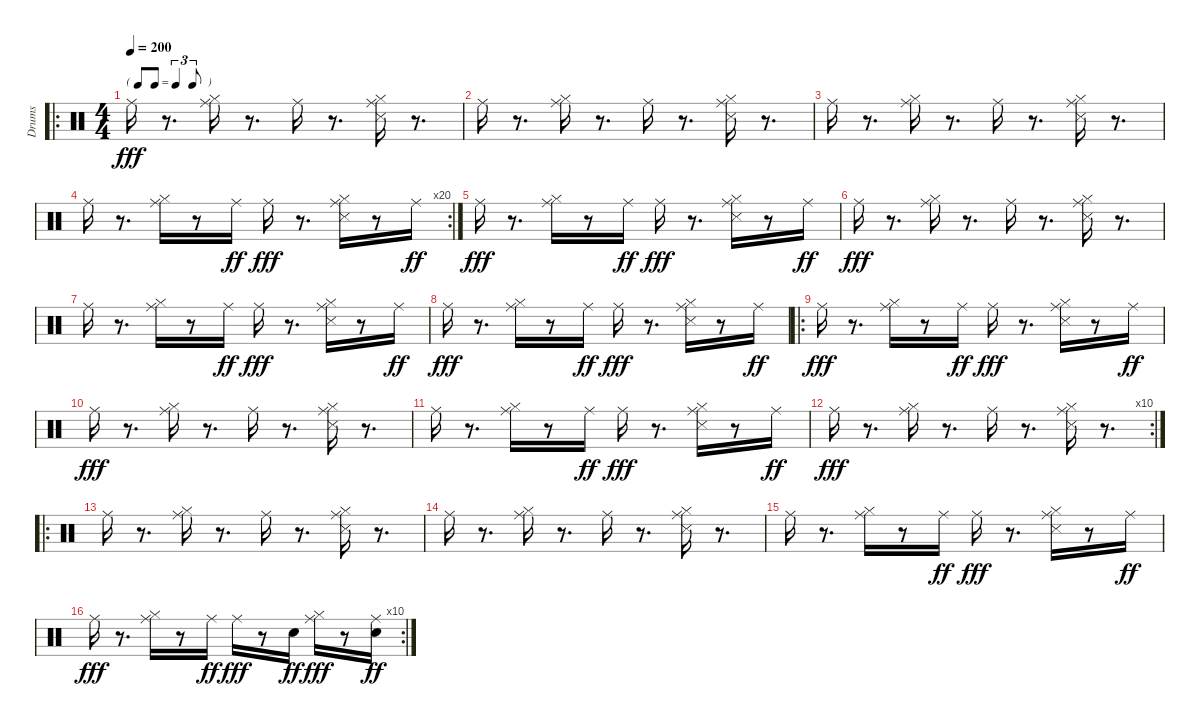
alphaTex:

\track ("Drums                                   " "Drums     ") {instrument percussion}
\staff {score}
\articulation defaults
\ro
\ts (4 4)
\tf triplet8th
\tempo 200
\clef neutral
\ks c "Ride (middle)".16{dy fff}
r.8{d} ("Hi-Hat (closed)" "Ride (middle)").16 r.8{d} "Ride (middle)".16 r.8{d} ("Hi-Hat (closed)" "Snare (side stick) 3" "Ride (middle)").16 r.8{d} |
"Ride (middle)".16 r.8{d} ("Hi-Hat (closed)" "Ride (middle)").16 r.8{d} "Ride (middle)".16 r.8{d} ("Hi-Hat (closed)" "Snare (side stick) 3" "Ride (middle)").16 r.8{d} |
"Ride (middle)".16 r.8{d} ("Hi-Hat (closed)" "Ride (middle)").16 r.8{d} "Ride (middle)".16 r.8{d} ("Hi-Hat (closed)" "Snare (side stick) 3" "Ride (middle)").16 r.8{d} |
\rc 20 "Ride (middle)".16
r.8{d} ("Hi-Hat (closed)" "Ride (middle)").16 r.8 "Ride (middle)".16{dy ff} "Ride (middle)".16{dy fff} r.8{d} ("Hi-Hat (closed)" "Snare (side stick) 3" "Ride (middle)").16 r.8 "Ride (middle)".16{dy ff} |
"Ride (middle)".16{dy fff} r.8{d} ("Hi-Hat (closed)" "Ride (middle)").16 r.8 "Ride (middle)".16{dy ff} "Ride (middle)".16{dy fff} r.8{d} ("Hi-Hat (closed)" "Snare (side stick) 3" "Ride (middle)").16 r.8 "Ride (middle)".16{dy ff} |
"Ride (middle)".16{dy fff} r.8{d} ("Hi-Hat (closed)" "Ride (middle)").16 r.8{d} "Ride (middle)".16 r.8{d} ("Hi-Hat (closed)" "Snare (side stick) 3" "Ride (middle)").16 r.8{d} |
"Ride (middle)".16 r.8{d} ("Hi-Hat (closed)" "Ride (middle)").16 r.8 "Ride (middle)".16{dy ff} "Ride (middle)".16{dy fff} r.8{d} ("Hi-Hat (closed)" "Snare (side stick) 3" "Ride (middle)").16 r.8 "Ride (middle)".16{dy ff} |
"Ride (middle)".16{dy fff} r.8{d} ("Hi-Hat (closed)" "Ride (middle)").16 r.8 "Ride (middle)".16{dy ff} "Ride (middle)".16{dy fff} r.8{d} ("Hi-Hat (closed)" "Snare (side stick) 3" "Ride (middle)").16 r.8 "Ride (middle)".16{dy ff} |
\ro "Ride (middle)".16{dy fff}
r.8{d} ("Hi-Hat (closed)" "Ride (middle)").16 r.8 "Ride (middle)".16{dy ff} "Ride (middle)".16{dy fff} r.8{d} ("Hi-Hat (closed)" "Snare (side stick) 3" "Ride (middle)").16 r.8 "Ride (middle)".16{dy ff} |
"Ride (middle)".16{dy fff} r.8{d} ("Hi-Hat (closed)" "Ride (middle)").16 r.8{d} "Ride (middle)".16 r.8{d} ("Hi-Hat (closed)" "Snare (side stick) 3" "Ride (middle)").16 r.8{d} |
"Ride (middle)".16 r.8{d} ("Hi-Hat (closed)" "Ride (middle)").16 r.8 "Ride (middle)".16{dy ff} "Ride (middle)".16{dy fff} r.8{d} ("Hi-Hat (closed)" "Snare (side stick) 3" "Ride (middle)").16 r.8 "Ride (middle)".16{dy ff} |
\rc 10 "Ride (middle)".16{dy fff}
r.8{d} ("Hi-Hat (closed)" "Ride (middle)").16 r.8{d} "Ride (middle)".16 r.8{d} ("Hi-Hat (closed)" "Snare (side stick) 3" "Ride (middle)").16 r.8{d} |
\ro "Ride (middle)".16
r.8{d} ("Hi-Hat (closed)" "Ride (middle)").16 r.8{d} "Ride (middle)".16 r.8{d} ("Hi-Hat (closed)" "Snare (side stick) 3" "Ride (middle)").16 r.8{d} |
"Ride (middle)".16 r.8{d} ("Hi-Hat (closed)" "Ride (middle)").16 r.8{d} "Ride (middle)".16 r.8{d} ("Hi-Hat (closed)" "Snare (side stick) 3" "Ride (middle)").16 r.8{d} |
"Ride (middle)".16 r.8{d} ("Hi-Hat (closed)" "Ride (middle)").16 r.8 "Ride (middle)".16{dy ff} "Ride (middle)".16{dy fff} r.8{d} ("Hi-Hat (closed)" "Snare (side stick) 3" "Ride (middle)").16 r.8 "Ride (middle)".16{dy ff} |
\rc 10 "Ride (middle)".16{dy fff}
r.8{d} ("Hi-Hat (closed)" "Ride (middle)").16 r.8 "Ride (middle)".16{dy ff} "Ride (middle)".16{dy fff} r.8 "Snare (hit) 2".16{dy ff} ("Hi-Hat (closed)" "Ride (middle)").16{dy fff} r.8 ("Snare (hit) 2" "Ride (middle)").16{dy ff}
